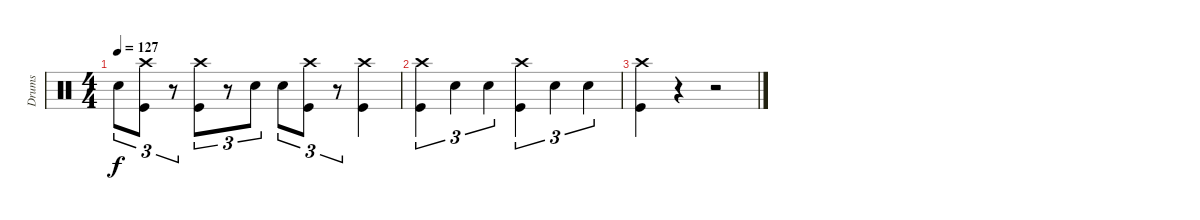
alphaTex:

\track ("Drums" "Drums") {instrument percussion}
\staff {score}
\articulation defaults
\ts (4 4)
\tempo 127
\clef neutral
\ks c "Snare (hit) 2".8{tu (3 2) dy f}
("Crash high (hit)" "Kick (hit)").8{tu (3 2)} r.8{tu (3 2)} ("Crash high (hit)" "Kick (hit)").8{tu (3 2)} r.8{tu (3 2)} "Snare (hit) 2".8{tu (3 2)} "Snare (hit) 2".8{tu (3 2)} ("Kick (hit)" "Crash high (hit)").8{tu (3 2)} r.8{tu (3 2)} ("Crash high (hit)" "Kick (hit)").4 |
("Crash high (hit)" "Kick (hit)").4{tu (3 2)} "Snare (hit) 2".4{tu (3 2)} "Snare (hit) 2".4{tu (3 2)} ("Crash high (hit)" "Kick (hit)").4{tu (3 2)} "Snare (hit) 2".4{tu (3 2)} "Snare (hit) 2".4{tu (3 2)} |
("Crash high (hit)" "Kick (hit)").4 r.4 r.2
